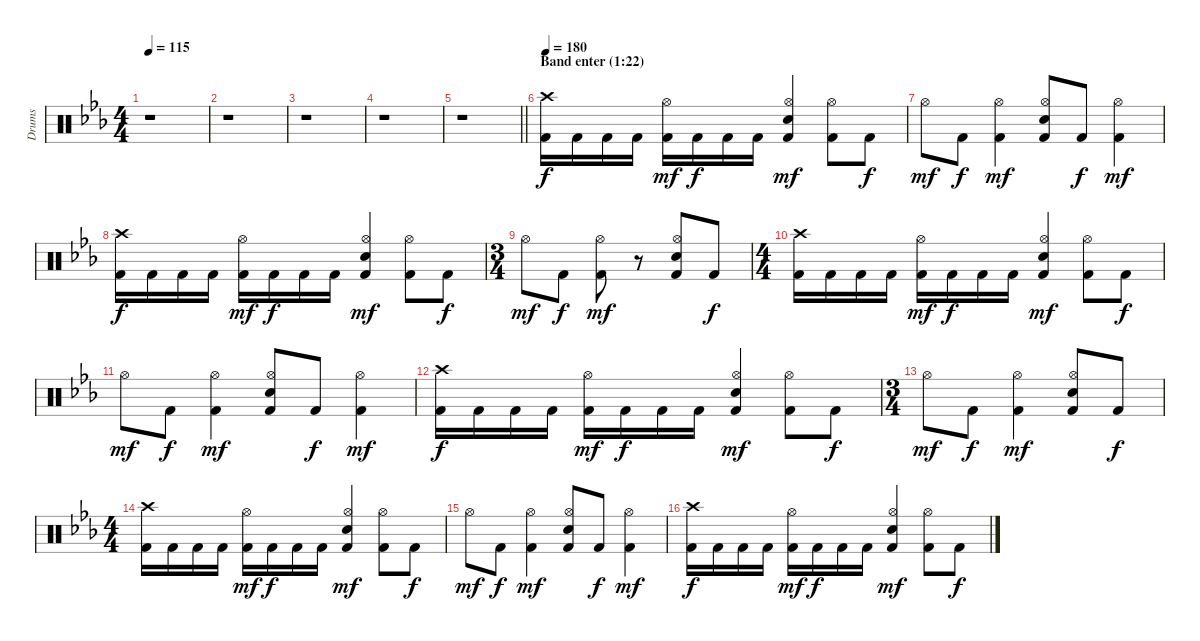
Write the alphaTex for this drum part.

\track ("Drums" "Drums") {instrument percussion}
\staff {score}
\articulation defaults
\ts (4 4)
\tempo 115
\clef neutral
\ks eb
r.1{dy mp} |
r.1 |
r.1 |
r.1 |
\barLineRight lightlight
r.1 |
\section ("" "Band enter (1:22)")
\tempo 180
("Crash high (hit)" "Kick (hit) 2").16{dy f volume 16} "Kick (hit) 2".16 "Kick (hit) 2".16 "Kick (hit) 2".16 ("Hi-Hat (open)" "Kick (hit) 2").16{dy mf} "Kick (hit) 2".16{dy f} "Kick (hit) 2".16 "Kick (hit) 2".16 ("Hi-Hat (open)" "Electric Snare (hit)" "Kick (hit) 2").4{dy mf} ("Hi-Hat (open)" "Kick (hit) 2").8 "Kick (hit) 2".8{dy f} |
"Hi-Hat (open)".8{dy mf} "Kick (hit) 2".8{dy f} ("Hi-Hat (open)" "Kick (hit) 2").4{dy mf} ("Hi-Hat (open)" "Electric Snare (hit)" "Kick (hit) 2").8 "Kick (hit) 2".8{dy f} ("Hi-Hat (open)" "Kick (hit) 2").4{dy mf} |
("Crash high (hit)" "Kick (hit) 2").16{dy f} "Kick (hit) 2".16 "Kick (hit) 2".16 "Kick (hit) 2".16 ("Hi-Hat (open)" "Kick (hit) 2").16{dy mf} "Kick (hit) 2".16{dy f} "Kick (hit) 2".16 "Kick (hit) 2".16 ("Hi-Hat (open)" "Electric Snare (hit)" "Kick (hit) 2").4{dy mf} ("Hi-Hat (open)" "Kick (hit) 2").8 "Kick (hit) 2".8{dy f} |
\ts (3 4)
"Hi-Hat (open)".8{dy mf} "Kick (hit) 2".8{dy f} ("Hi-Hat (open)" "Kick (hit) 2").8{dy mf} r.8 ("Hi-Hat (open)" "Electric Snare (hit)" "Kick (hit) 2").8 "Kick (hit) 2".8{dy f} |
\ts (4 4)
("Crash high (hit)" "Kick (hit) 2").16 "Kick (hit) 2".16 "Kick (hit) 2".16 "Kick (hit) 2".16 ("Hi-Hat (open)" "Kick (hit) 2").16{dy mf} "Kick (hit) 2".16{dy f} "Kick (hit) 2".16 "Kick (hit) 2".16 ("Hi-Hat (open)" "Electric Snare (hit)" "Kick (hit) 2").4{dy mf} ("Hi-Hat (open)" "Kick (hit) 2").8 "Kick (hit) 2".8{dy f} |
"Hi-Hat (open)".8{dy mf} "Kick (hit) 2".8{dy f} ("Hi-Hat (open)" "Kick (hit) 2").4{dy mf} ("Hi-Hat (open)" "Electric Snare (hit)" "Kick (hit) 2").8 "Kick (hit) 2".8{dy f} ("Hi-Hat (open)" "Kick (hit) 2").4{dy mf} |
("Crash high (hit)" "Kick (hit) 2").16{dy f} "Kick (hit) 2".16 "Kick (hit) 2".16 "Kick (hit) 2".16 ("Hi-Hat (open)" "Kick (hit) 2").16{dy mf} "Kick (hit) 2".16{dy f} "Kick (hit) 2".16 "Kick (hit) 2".16 ("Hi-Hat (open)" "Electric Snare (hit)" "Kick (hit) 2").4{dy mf} ("Hi-Hat (open)" "Kick (hit) 2").8 "Kick (hit) 2".8{dy f} |
\ts (3 4)
"Hi-Hat (open)".8{dy mf} "Kick (hit) 2".8{dy f} ("Hi-Hat (open)" "Kick (hit) 2").4{dy mf} ("Hi-Hat (open)" "Electric Snare (hit)" "Kick (hit) 2").8 "Kick (hit) 2".8{dy f} |
\ts (4 4)
("Crash high (hit)" "Kick (hit) 2").16 "Kick (hit) 2".16 "Kick (hit) 2".16 "Kick (hit) 2".16 ("Hi-Hat (open)" "Kick (hit) 2").16{dy mf} "Kick (hit) 2".16{dy f} "Kick (hit) 2".16 "Kick (hit) 2".16 ("Hi-Hat (open)" "Electric Snare (hit)" "Kick (hit) 2").4{dy mf} ("Hi-Hat (open)" "Kick (hit) 2").8 "Kick (hit) 2".8{dy f} |
"Hi-Hat (open)".8{dy mf} "Kick (hit) 2".8{dy f} ("Hi-Hat (open)" "Kick (hit) 2").4{dy mf} ("Hi-Hat (open)" "Electric Snare (hit)" "Kick (hit) 2").8 "Kick (hit) 2".8{dy f} ("Hi-Hat (open)" "Kick (hit) 2").4{dy mf} |
("Crash high (hit)" "Kick (hit) 2").16{dy f} "Kick (hit) 2".16 "Kick (hit) 2".16 "Kick (hit) 2".16 ("Hi-Hat (open)" "Kick (hit) 2").16{dy mf} "Kick (hit) 2".16{dy f} "Kick (hit) 2".16 "Kick (hit) 2".16 ("Hi-Hat (open)" "Electric Snare (hit)" "Kick (hit) 2").4{dy mf} ("Hi-Hat (open)" "Kick (hit) 2").8 "Kick (hit) 2".8{dy f}
